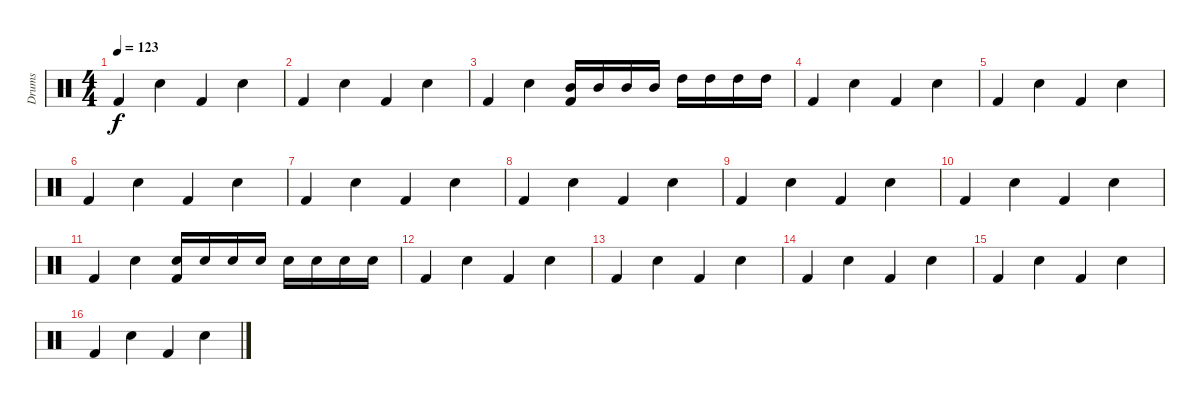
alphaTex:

\track ("Drums" "Drums") {instrument percussion}
\staff {score}
\articulation defaults
\ts (4 4)
\tempo 123
\clef neutral
\ks c "Kick (hit) 2".4{dy f} "Electric Snare (hit)".4 "Kick (hit) 2".4 "Electric Snare (hit)".4
|
"Kick (hit) 2".4 "Electric Snare (hit)".4 "Kick (hit) 2".4 "Electric Snare (hit)".4 |
"Kick (hit) 2".4 "Electric Snare (hit)".4 ("Mid Tom (hit)" "Kick (hit) 2").16 "Mid Tom (hit)".16 "Mid Tom (hit)".16 "Mid Tom (hit)".16 "High Tom (hit)".16 "High Tom (hit)".16 "High Tom (hit)".16 "High Tom (hit)".16 |
"Kick (hit) 2".4 "Electric Snare (hit)".4 "Kick (hit) 2".4 "Electric Snare (hit)".4 |
"Kick (hit) 2".4 "Electric Snare (hit)".4 "Kick (hit) 2".4 "Electric Snare (hit)".4 |
"Kick (hit) 2".4 "Electric Snare (hit)".4 "Kick (hit) 2".4 "Electric Snare (hit)".4 |
"Kick (hit) 2".4 "Electric Snare (hit)".4 "Kick (hit) 2".4 "Electric Snare (hit)".4 |
"Kick (hit) 2".4 "Electric Snare (hit)".4 "Kick (hit) 2".4 "Electric Snare (hit)".4 |
"Kick (hit) 2".4 "Electric Snare (hit)".4 "Kick (hit) 2".4 "Electric Snare (hit)".4 |
"Kick (hit) 2".4 "Electric Snare (hit)".4 "Kick (hit) 2".4 "Electric Snare (hit)".4 |
"Kick (hit) 2".4 "Electric Snare (hit)".4 ("Kick (hit) 2" "Electric Snare (hit)").16 "Electric Snare (hit)".16 "Electric Snare (hit)".16 "Electric Snare (hit)".16 "Electric Snare (hit)".16 "Electric Snare (hit)".16 "Electric Snare (hit)".16 "Electric Snare (hit)".16 |
"Kick (hit) 2".4 "Electric Snare (hit)".4 "Kick (hit) 2".4 "Electric Snare (hit)".4 |
"Kick (hit) 2".4 "Electric Snare (hit)".4 "Kick (hit) 2".4 "Electric Snare (hit)".4 |
"Kick (hit) 2".4 "Electric Snare (hit)".4 "Kick (hit) 2".4 "Electric Snare (hit)".4 |
"Kick (hit) 2".4 "Electric Snare (hit)".4 "Kick (hit) 2".4 "Electric Snare (hit)".4 |
"Kick (hit) 2".4 "Electric Snare (hit)".4 "Kick (hit) 2".4 "Electric Snare (hit)".4
